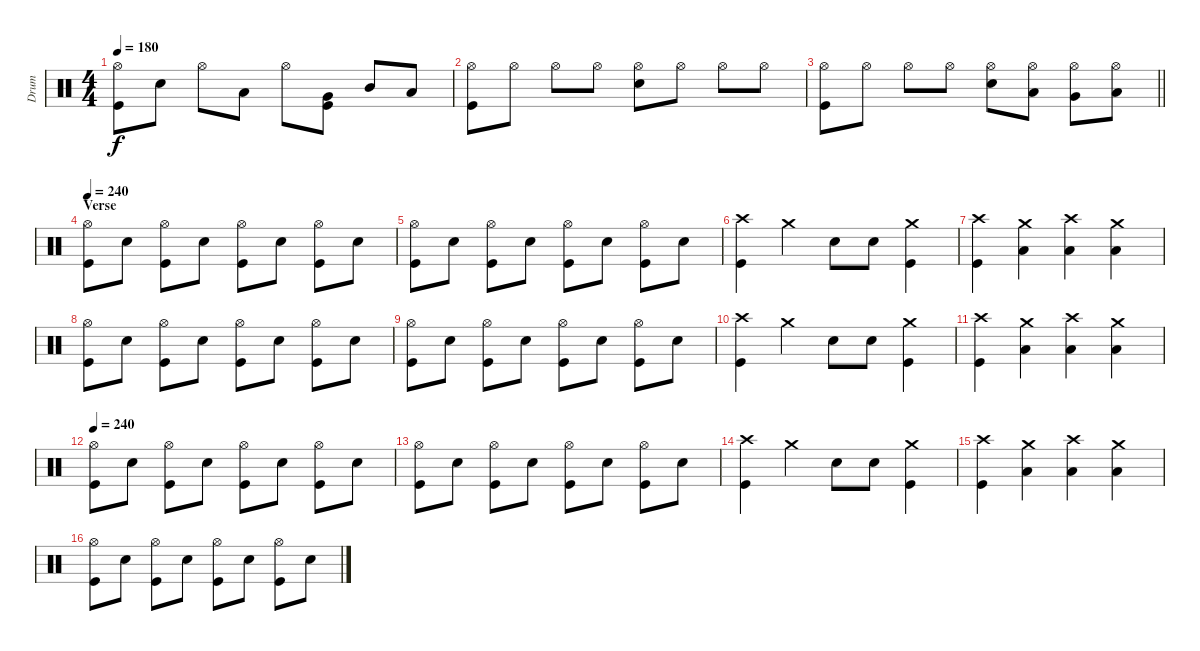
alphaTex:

\track ("Drum" "Drum") {instrument percussion}
\staff {score}
\articulation defaults
\ts (4 4)
\tempo 180
\clef neutral
\ks c
("Hi-Hat (open)" "Kick (hit)").8{dy f} "Snare (hit) 2".8 "Hi-Hat (open)".8 "Low Tom (hit)".8 "Hi-Hat (open)".8 ("Very Low Tom (hit)" "Kick (hit)").8 "Mid Tom (hit)".8 "Low Tom (hit)".8 |
("Hi-Hat (open)" "Kick (hit)").8 "Hi-Hat (open)".8 "Hi-Hat (open)".8 "Hi-Hat (open)".8 ("Hi-Hat (open)" "Snare (hit) 2").8 "Hi-Hat (open)".8 "Hi-Hat (open)".8 "Hi-Hat (open)".8 |
\barLineRight lightlight
("Hi-Hat (open)" "Kick (hit)").8 "Hi-Hat (open)".8 "Hi-Hat (open)".8 "Hi-Hat (open)".8 ("Hi-Hat (open)" "Snare (hit) 2").8 ("Hi-Hat (open)" "Low Tom (hit)").8 ("Hi-Hat (open)" "Very Low Tom (hit)").8 ("Hi-Hat (open)" "Low Floor Tom (hit)").8 |
\section ("" "Verse")
\tempo 240
("Hi-Hat (open)" "Kick (hit)").8 "Snare (hit) 2".8 ("Hi-Hat (open)" "Kick (hit)").8 "Snare (hit) 2".8 ("Hi-Hat (open)" "Kick (hit)").8 "Snare (hit) 2".8 ("Hi-Hat (open)" "Kick (hit)").8 "Snare (hit) 2".8 |
("Hi-Hat (open)" "Kick (hit)").8 "Snare (hit) 2".8 ("Hi-Hat (open)" "Kick (hit)").8 "Snare (hit) 2".8 ("Hi-Hat (open)" "Kick (hit)").8 "Snare (hit) 2".8 ("Hi-Hat (open)" "Kick (hit)").8 "Snare (hit) 2".8 |
("Crash high (hit)" "Kick (hit)").4 "Crash medium (hit)".4 "Snare (hit) 2".8 "Snare (hit) 2".8 ("Crash medium (hit)" "Kick (hit)").4 |
("Crash high (hit)" "Kick (hit)").4 ("Crash medium (hit)" "Low Floor Tom (hit)").4 ("Crash high (hit)" "Low Tom (hit)").4 ("Crash medium (hit)" "Low Floor Tom (hit)").4 |
("Hi-Hat (open)" "Kick (hit)").8 "Snare (hit) 2".8 ("Hi-Hat (open)" "Kick (hit)").8 "Snare (hit) 2".8 ("Hi-Hat (open)" "Kick (hit)").8 "Snare (hit) 2".8 ("Hi-Hat (open)" "Kick (hit)").8 "Snare (hit) 2".8 |
("Hi-Hat (open)" "Kick (hit)").8 "Snare (hit) 2".8 ("Hi-Hat (open)" "Kick (hit)").8 "Snare (hit) 2".8 ("Hi-Hat (open)" "Kick (hit)").8 "Snare (hit) 2".8 ("Hi-Hat (open)" "Kick (hit)").8 "Snare (hit) 2".8 |
("Crash high (hit)" "Kick (hit)").4 "Crash medium (hit)".4 "Snare (hit) 2".8 "Snare (hit) 2".8 ("Crash medium (hit)" "Kick (hit)").4 |
("Crash high (hit)" "Kick (hit)").4 ("Crash medium (hit)" "Low Floor Tom (hit)").4 ("Crash high (hit)" "Low Tom (hit)").4 ("Crash medium (hit)" "Low Floor Tom (hit)").4 |
\tempo 240
("Hi-Hat (open)" "Kick (hit)").8 "Snare (hit) 2".8 ("Hi-Hat (open)" "Kick (hit)").8 "Snare (hit) 2".8 ("Hi-Hat (open)" "Kick (hit)").8 "Snare (hit) 2".8 ("Hi-Hat (open)" "Kick (hit)").8 "Snare (hit) 2".8 |
("Hi-Hat (open)" "Kick (hit)").8 "Snare (hit) 2".8 ("Hi-Hat (open)" "Kick (hit)").8 "Snare (hit) 2".8 ("Hi-Hat (open)" "Kick (hit)").8 "Snare (hit) 2".8 ("Hi-Hat (open)" "Kick (hit)").8 "Snare (hit) 2".8 |
("Crash high (hit)" "Kick (hit)").4 "Crash medium (hit)".4 "Snare (hit) 2".8 "Snare (hit) 2".8 ("Crash medium (hit)" "Kick (hit)").4 |
("Crash high (hit)" "Kick (hit)").4 ("Crash medium (hit)" "Low Floor Tom (hit)").4 ("Crash high (hit)" "Low Tom (hit)").4 ("Crash medium (hit)" "Low Floor Tom (hit)").4 |
("Hi-Hat (open)" "Kick (hit)").8 "Snare (hit) 2".8 ("Hi-Hat (open)" "Kick (hit)").8 "Snare (hit) 2".8 ("Hi-Hat (open)" "Kick (hit)").8 "Snare (hit) 2".8 ("Hi-Hat (open)" "Kick (hit)").8 "Snare (hit) 2".8
